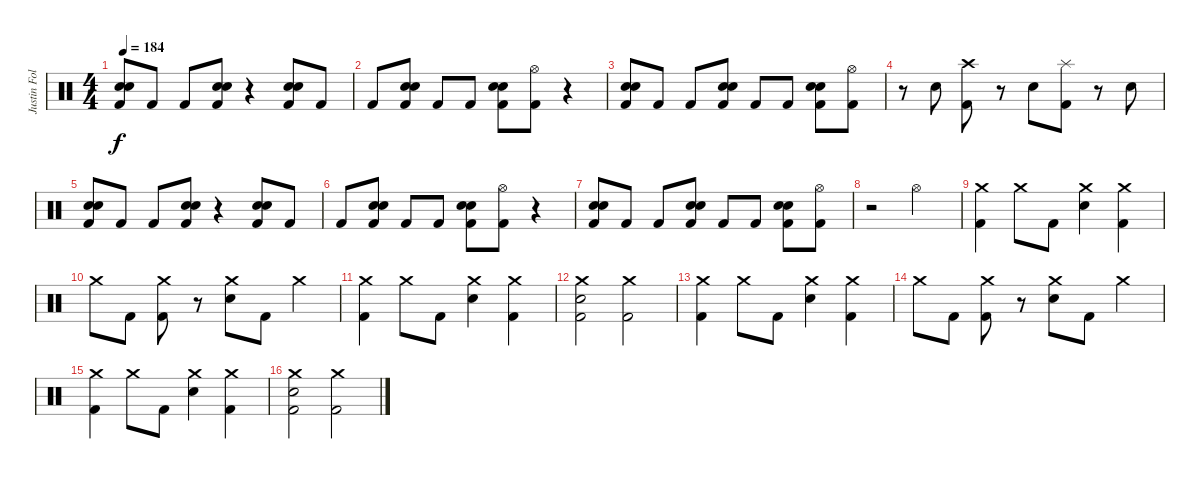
\track ("Justin Foley" "Justin Fol") {instrument percussion}
\staff {score}
\articulation defaults
\ts (4 4)
\tempo 184
\clef neutral
\ks c
("Electric Snare (hit)" "Electric Snare (hit)" "Kick (hit) 2").8{dy f} "Kick (hit) 2".8 "Kick (hit) 2".8 ("Electric Snare (hit)" "Electric Snare (hit)" "Kick (hit) 2").8 r.4 ("Electric Snare (hit)" "Electric Snare (hit)" "Kick (hit) 2").8 "Kick (hit) 2".8 |
"Kick (hit) 2".8 ("Electric Snare (hit)" "Electric Snare (hit)" "Kick (hit) 2").8 "Kick (hit) 2".8 "Kick (hit) 2".8 ("Electric Snare (hit)" "Electric Snare (hit)" "Kick (hit) 2").8 ("Hi-Hat (open)" "Kick (hit) 2").8 r.4 |
("Electric Snare (hit)" "Electric Snare (hit)" "Kick (hit) 2").8 "Kick (hit) 2".8 "Kick (hit) 2".8 ("Electric Snare (hit)" "Electric Snare (hit)" "Kick (hit) 2").8 "Kick (hit) 2".8 "Kick (hit) 2".8 ("Electric Snare (hit)" "Electric Snare (hit)" "Kick (hit) 2").8 ("Hi-Hat (open)" "Kick (hit) 2").8 |
r.8 "Electric Snare (hit)".8 ("Crash high (hit)" "Kick (hit) 2").8 r.8 "Electric Snare (hit)".8 ("Splash (hit)" "Kick (hit) 2").8 r.8 "Electric Snare (hit)".8 |
("Electric Snare (hit)" "Electric Snare (hit)" "Kick (hit) 2").8 "Kick (hit) 2".8 "Kick (hit) 2".8 ("Electric Snare (hit)" "Electric Snare (hit)" "Kick (hit) 2").8 r.4 ("Electric Snare (hit)" "Electric Snare (hit)" "Kick (hit) 2").8 "Kick (hit) 2".8 |
"Kick (hit) 2".8 ("Electric Snare (hit)" "Electric Snare (hit)" "Kick (hit) 2").8 "Kick (hit) 2".8 "Kick (hit) 2".8 ("Electric Snare (hit)" "Electric Snare (hit)" "Kick (hit) 2").8 ("Hi-Hat (open)" "Kick (hit) 2").8 r.4 |
("Electric Snare (hit)" "Electric Snare (hit)" "Kick (hit) 2").8 "Kick (hit) 2".8 "Kick (hit) 2".8 ("Electric Snare (hit)" "Electric Snare (hit)" "Kick (hit) 2").8 "Kick (hit) 2".8 "Kick (hit) 2".8 ("Electric Snare (hit)" "Electric Snare (hit)" "Kick (hit) 2").8 ("Hi-Hat (open)" "Kick (hit) 2").8 |
r.2 "Hi-Hat (open)".2 |
("Crash medium (hit)" "Kick (hit) 2").4 "Crash medium (hit)".8 "Kick (hit) 2".8 ("Crash medium (hit)" "Electric Snare (hit)").4 ("Crash medium (hit)" "Kick (hit) 2").4 |
"Crash medium (hit)".8 "Kick (hit) 2".8 ("Crash medium (hit)" "Kick (hit) 2").8 r.8 ("Crash medium (hit)" "Electric Snare (hit)").8 "Kick (hit) 2".8 "Crash medium (hit)".4 |
("Crash medium (hit)" "Kick (hit) 2").4 "Crash medium (hit)".8 "Kick (hit) 2".8 ("Crash medium (hit)" "Electric Snare (hit)").4 ("Crash medium (hit)" "Kick (hit) 2").4 |
("Crash medium (hit)" "Electric Snare (hit)" "Kick (hit) 2").2 ("Crash medium (hit)" "Kick (hit) 2").2 |
("Crash medium (hit)" "Kick (hit) 2").4 "Crash medium (hit)".8 "Kick (hit) 2".8 ("Crash medium (hit)" "Electric Snare (hit)").4 ("Crash medium (hit)" "Kick (hit) 2").4 |
"Crash medium (hit)".8 "Kick (hit) 2".8 ("Crash medium (hit)" "Kick (hit) 2").8 r.8 ("Crash medium (hit)" "Electric Snare (hit)").8 "Kick (hit) 2".8 "Crash medium (hit)".4 |
("Crash medium (hit)" "Kick (hit) 2").4 "Crash medium (hit)".8 "Kick (hit) 2".8 ("Crash medium (hit)" "Electric Snare (hit)").4 ("Crash medium (hit)" "Kick (hit) 2").4 |
("Crash medium (hit)" "Electric Snare (hit)" "Kick (hit) 2").2 ("Crash medium (hit)" "Kick (hit) 2").2
